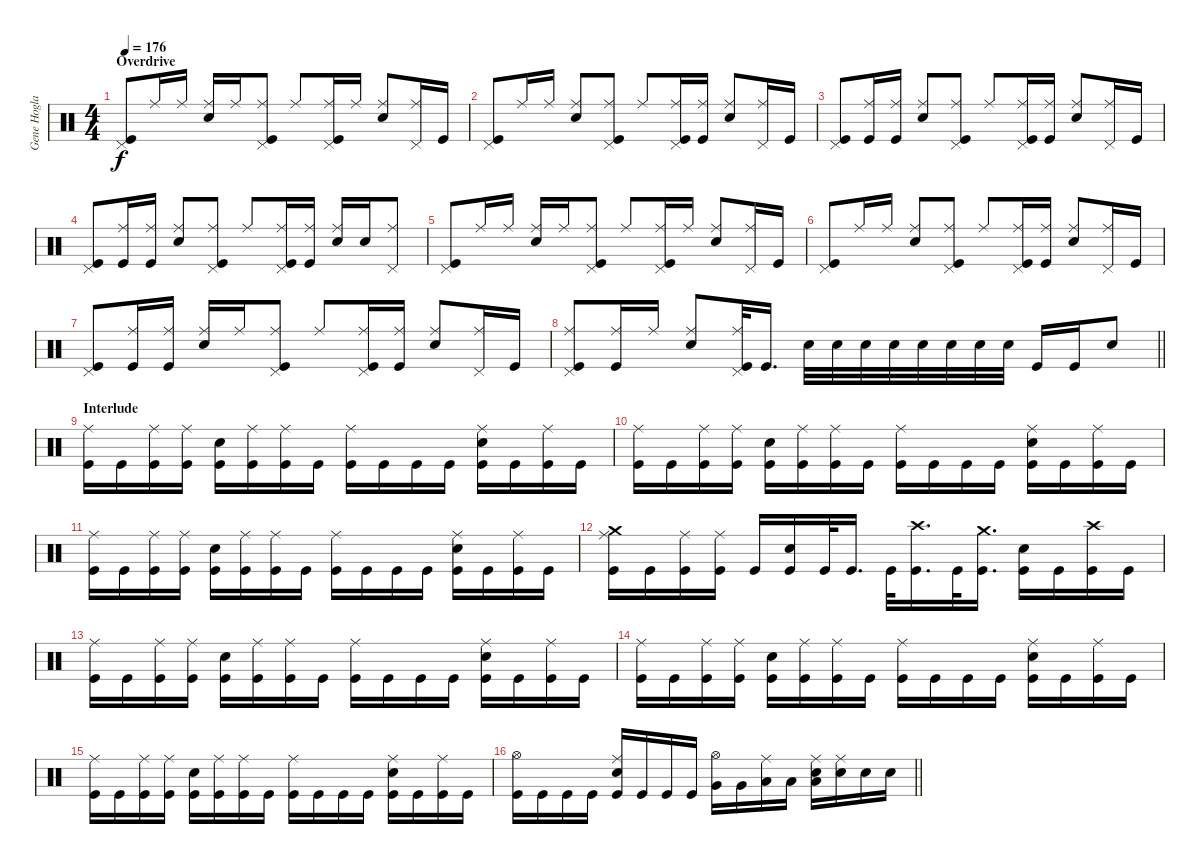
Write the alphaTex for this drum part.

\track ("Gene Hoglan " "Gene Hogla") {instrument percussion}
\staff {score}
\articulation defaults
\ts (4 4)
\section ("" "Overdrive")
\tempo 176
\clef neutral
\ks c
("Pedal Hi-Hat (hit)" "Kick (hit)").8{dy f} "Ride (middle)".16 "Ride (middle)".16 ("Ride (middle)" "Snare (hit) 2").16 "Ride (middle)".16 ("Pedal Hi-Hat (hit)" "Ride (middle)" "Kick (hit)").8 "Ride (middle)".8 ("Pedal Hi-Hat (hit)" "Ride (middle)" "Kick (hit)").16 "Ride (middle)".16 ("Ride (middle)" "Snare (hit) 2").8 ("Pedal Hi-Hat (hit)" "Ride (middle)").16 "Kick (hit)".16 |
("Pedal Hi-Hat (hit)" "Kick (hit)").8 "Ride (middle)".16 "Ride (middle)".16 ("Ride (middle)" "Snare (hit) 2").8 ("Pedal Hi-Hat (hit)" "Ride (middle)" "Kick (hit)").8 "Ride (middle)".8 ("Pedal Hi-Hat (hit)" "Ride (middle)" "Kick (hit)").16 ("Ride (middle)" "Kick (hit)").16 ("Ride (middle)" "Snare (hit) 2").8 ("Pedal Hi-Hat (hit)" "Ride (middle)").16 "Kick (hit)".16 |
("Pedal Hi-Hat (hit)" "Kick (hit)").8 ("Ride (middle)" "Kick (hit)").16 ("Ride (middle)" "Kick (hit)").16 ("Ride (middle)" "Snare (hit) 2").8 ("Pedal Hi-Hat (hit)" "Ride (middle)" "Kick (hit)").8 "Ride (middle)".8 ("Pedal Hi-Hat (hit)" "Ride (middle)" "Kick (hit)").16 ("Ride (middle)" "Kick (hit)").16 ("Ride (middle)" "Snare (hit) 2").8 ("Pedal Hi-Hat (hit)" "Ride (middle)").16 "Kick (hit)".16 |
("Pedal Hi-Hat (hit)" "Kick (hit)").8 ("Ride (middle)" "Kick (hit)").16 ("Ride (middle)" "Kick (hit)").16 ("Ride (middle)" "Snare (hit) 2").8 ("Pedal Hi-Hat (hit)" "Ride (middle)" "Kick (hit)").8 "Ride (middle)".8 ("Pedal Hi-Hat (hit)" "Ride (middle)" "Kick (hit)").16 ("Ride (middle)" "Kick (hit)").16 ("Ride (middle)" "Snare (hit) 2").16 "Snare (hit) 2".16 ("Pedal Hi-Hat (hit)" "Ride (middle)").8 |
("Pedal Hi-Hat (hit)" "Kick (hit)").8 "Ride (middle)".16 "Ride (middle)".16 ("Ride (middle)" "Snare (hit) 2").16 "Ride (middle)".16 ("Pedal Hi-Hat (hit)" "Ride (middle)" "Kick (hit)").8 "Ride (middle)".8 ("Pedal Hi-Hat (hit)" "Ride (middle)" "Kick (hit)").16 "Ride (middle)".16 ("Ride (middle)" "Snare (hit) 2").8 ("Pedal Hi-Hat (hit)" "Ride (middle)").16 "Kick (hit)".16 |
("Pedal Hi-Hat (hit)" "Kick (hit)").8 "Ride (middle)".16 "Ride (middle)".16 ("Ride (middle)" "Snare (hit) 2").8 ("Pedal Hi-Hat (hit)" "Ride (middle)" "Kick (hit)").8 "Ride (middle)".8 ("Pedal Hi-Hat (hit)" "Ride (middle)" "Kick (hit)").16 ("Ride (middle)" "Kick (hit)").16 ("Ride (middle)" "Snare (hit) 2").8 ("Pedal Hi-Hat (hit)" "Ride (middle)").16 "Kick (hit)".16 |
("Pedal Hi-Hat (hit)" "Kick (hit)").8 ("Ride (middle)" "Kick (hit)").16 ("Ride (middle)" "Kick (hit)").16 ("Ride (middle)" "Snare (hit) 2").16 "Ride (middle)".16 ("Pedal Hi-Hat (hit)" "Ride (middle)" "Kick (hit)").8 "Ride (middle)".8 ("Pedal Hi-Hat (hit)" "Ride (middle)" "Kick (hit)").16 ("Ride (middle)" "Kick (hit)").16 ("Ride (middle)" "Snare (hit) 2").8 ("Pedal Hi-Hat (hit)" "Ride (middle)").16 "Kick (hit)".16 |
\barLineRight lightlight
("Pedal Hi-Hat (hit)" "Ride (middle)" "Kick (hit)").8 ("Ride (middle)" "Kick (hit)").16 "Ride (middle)".16 ("Ride (middle)" "Snare (hit) 2").8 ("Pedal Hi-Hat (hit)" "Ride (middle)" "Kick (hit)").32 "Kick (hit)".16{d} "Snare (hit) 2".32 "Snare (hit) 2".32 "Snare (hit) 2".32 "Snare (hit) 2".32 "Snare (hit) 2".32 "Snare (hit) 2".32 "Snare (hit) 2".32 "Snare (hit) 2".32 "Kick (hit)".16 "Kick (hit)".16 "Snare (hit) 2".8 |
\section ("" "Interlude")
("Ride (middle)" "Kick (hit)").16 "Kick (hit)".16 ("Ride (middle)" "Kick (hit)").16 ("Ride (middle)" "Kick (hit)").16 ("Snare (hit) 2" "Kick (hit)").16 ("Ride (middle)" "Kick (hit)").16 ("Ride (middle)" "Kick (hit)").16 "Kick (hit)".16 ("Ride (middle)" "Kick (hit)").16 "Kick (hit)".16 "Kick (hit)".16 "Kick (hit)".16 ("Ride (middle)" "Snare (hit) 2" "Kick (hit)").16 "Kick (hit)".16 ("Ride (middle)" "Kick (hit)").16 "Kick (hit)".16 |
("Ride (middle)" "Kick (hit)").16 "Kick (hit)".16 ("Ride (middle)" "Kick (hit)").16 ("Ride (middle)" "Kick (hit)").16 ("Snare (hit) 2" "Kick (hit)").16 ("Ride (middle)" "Kick (hit)").16 ("Ride (middle)" "Kick (hit)").16 "Kick (hit)".16 ("Ride (middle)" "Kick (hit)").16 "Kick (hit)".16 "Kick (hit)".16 "Kick (hit)".16 ("Ride (middle)" "Snare (hit) 2" "Kick (hit)").16 "Kick (hit)".16 ("Ride (middle)" "Kick (hit)").16 "Kick (hit)".16 |
("Ride (middle)" "Kick (hit)").16 "Kick (hit)".16 ("Ride (middle)" "Kick (hit)").16 ("Ride (middle)" "Kick (hit)").16 ("Snare (hit) 2" "Kick (hit)").16 ("Ride (middle)" "Kick (hit)").16 ("Ride (middle)" "Kick (hit)").16 "Kick (hit)".16 ("Ride (middle)" "Kick (hit)").16 "Kick (hit)".16 "Kick (hit)".16 "Kick (hit)".16 ("Ride (middle)" "Snare (hit) 2" "Kick (hit)").16 "Kick (hit)".16 ("Ride (middle)" "Kick (hit)").16 "Kick (hit)".16 |
("Crash medium (hit)" "Ride (middle)" "Kick (hit)").16 "Kick (hit)".16 ("Ride (middle)" "Kick (hit)").16 ("Ride (middle)" "Kick (hit)").16 "Kick (hit)".16 ("Snare (hit) 2" "Kick (hit)").16 "Kick (hit)".32 "Kick (hit)".16{d} "Kick (hit)".32 ("Crash high (hit)" "Kick (hit)").16{d} "Kick (hit)".32 ("Crash medium (hit)" "Kick (hit)").16{d} ("Snare (hit) 2" "Kick (hit)").16 "Kick (hit)".16 ("Crash high (hit)" "Kick (hit)").16 "Kick (hit)".16 |
("Ride (middle)" "Kick (hit)").16 "Kick (hit)".16 ("Ride (middle)" "Kick (hit)").16 ("Ride (middle)" "Kick (hit)").16 ("Snare (hit) 2" "Kick (hit)").16 ("Ride (middle)" "Kick (hit)").16 ("Ride (middle)" "Kick (hit)").16 "Kick (hit)".16 ("Ride (middle)" "Kick (hit)").16 "Kick (hit)".16 "Kick (hit)".16 "Kick (hit)".16 ("Ride (middle)" "Snare (hit) 2" "Kick (hit)").16 "Kick (hit)".16 ("Ride (middle)" "Kick (hit)").16 "Kick (hit)".16 |
("Ride (middle)" "Kick (hit)").16 "Kick (hit)".16 ("Ride (middle)" "Kick (hit)").16 ("Ride (middle)" "Kick (hit)").16 ("Snare (hit) 2" "Kick (hit)").16 ("Ride (middle)" "Kick (hit)").16 ("Ride (middle)" "Kick (hit)").16 "Kick (hit)".16 ("Ride (middle)" "Kick (hit)").16 "Kick (hit)".16 "Kick (hit)".16 "Kick (hit)".16 ("Ride (middle)" "Snare (hit) 2" "Kick (hit)").16 "Kick (hit)".16 ("Ride (middle)" "Kick (hit)").16 "Kick (hit)".16 |
("Ride (middle)" "Kick (hit)").16 "Kick (hit)".16 ("Ride (middle)" "Kick (hit)").16 ("Ride (middle)" "Kick (hit)").16 ("Snare (hit) 2" "Kick (hit)").16 ("Ride (middle)" "Kick (hit)").16 ("Ride (middle)" "Kick (hit)").16 "Kick (hit)".16 ("Ride (middle)" "Kick (hit)").16 "Kick (hit)".16 "Kick (hit)".16 "Kick (hit)".16 ("Ride (middle)" "Snare (hit) 2" "Kick (hit)").16 "Kick (hit)".16 ("Ride (middle)" "Kick (hit)").16 "Kick (hit)".16 |
\barLineRight lightlight
("Hi-Hat (open)" "Kick (hit)").16 "Kick (hit)".16 "Kick (hit)".16 "Kick (hit)".16 ("Ride (middle)" "Snare (hit) 2" "Kick (hit)").16 "Kick (hit)".16 "Kick (hit)".16 "Kick (hit)".16 ("Hi-Hat (open)" "Very Low Tom (hit)").16 "Very Low Tom (hit)".16 ("Ride (middle)" "Low Floor Tom (hit)").16 "Low Floor Tom (hit)".16 ("Ride (middle)" "Snare (hit) 2" "Low Floor Tom (hit)").16 ("Ride (middle)" "Snare (hit) 2").16 "Snare (hit) 2".16 "Snare (hit) 2".16
